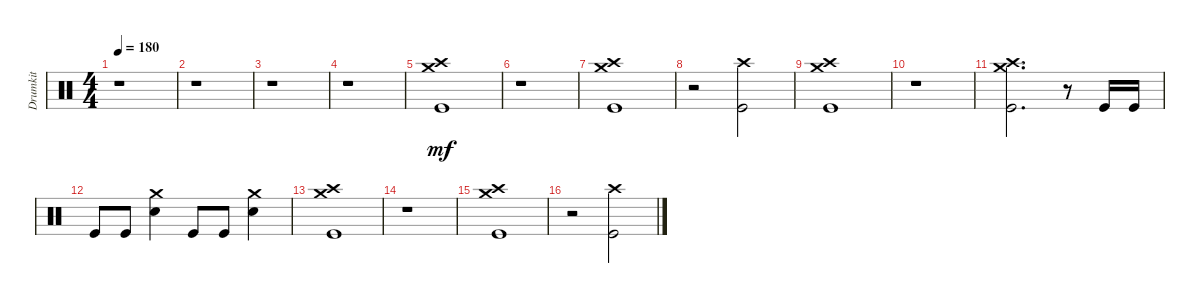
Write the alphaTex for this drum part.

\track ("Drumkit" "Drumkit") {instrument percussion}
\staff {score}
\articulation defaults
\ts (4 4)
\tempo 180
\clef neutral
\ks c
r.1{dy mf} |
r.1 |
r.1 |
r.1 |
("Crash medium (hit)" "Crash high (hit)" "Kick (hit)").1 |
r.1 |
("Crash medium (hit)" "Crash high (hit)" "Kick (hit)").1 |
r.2 ("Crash high (hit)" "Kick (hit)").2 |
("Kick (hit)" "Crash medium (hit)" "Crash high (hit)").1 |
r.1 |
("Kick (hit)" "Crash medium (hit)" "Crash high (hit)").2{d} r.8 "Kick (hit)".16 "Kick (hit)".16 |
"Kick (hit)".8 "Kick (hit)".8 ("Snare (hit) 2" "Crash medium (hit)").4 "Kick (hit)".8 "Kick (hit)".8 ("Snare (hit) 2" "Crash medium (hit)").4 |
("Crash medium (hit)" "Crash high (hit)" "Kick (hit)").1 |
r.1 |
("Crash medium (hit)" "Crash high (hit)" "Kick (hit)").1 |
r.2 ("Crash high (hit)" "Kick (hit)").2
